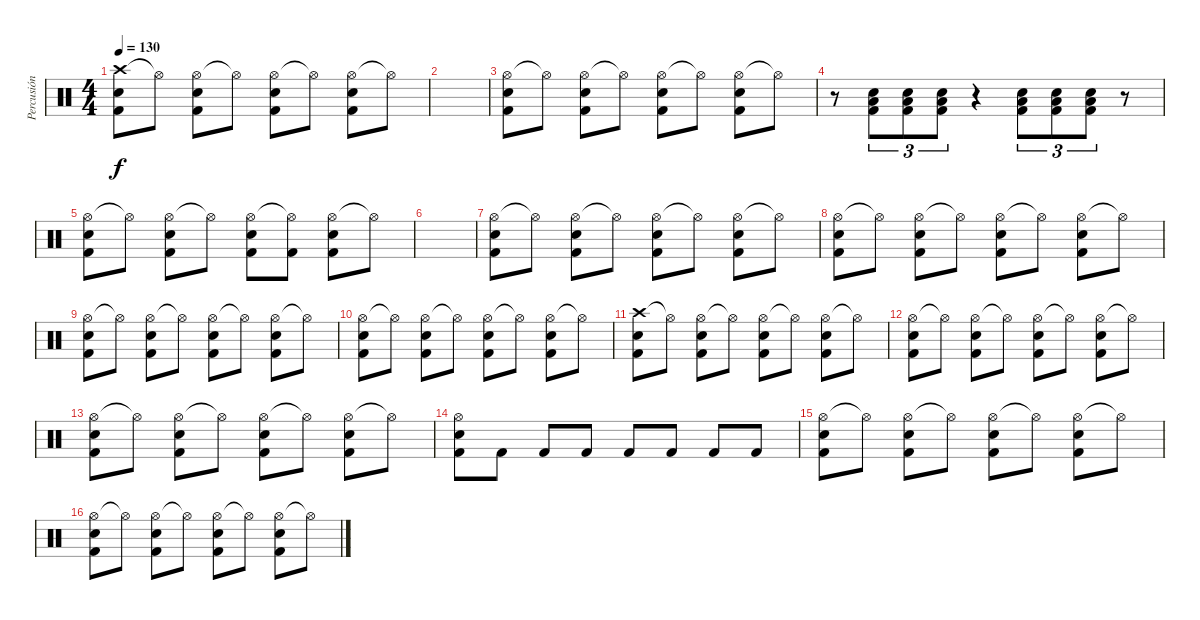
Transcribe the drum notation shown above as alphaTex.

\track ("Percusión" "Percusión") {instrument percussion}
\staff {score}
\articulation defaults
\ts (4 4)
\tempo 130
\clef neutral
\ks c
("Crash high (hit)" "Snare (hit) 2" "Kick (hit) 2").8{dy f} "Hi-Hat (open)"{t}.8 ("Hi-Hat (open)" "Snare (hit) 2" "Kick (hit) 2").8 "Hi-Hat (open)"{t}.8 ("Hi-Hat (open)" "Snare (hit) 2" "Kick (hit) 2").8 "Hi-Hat (open)"{t}.8 ("Hi-Hat (open)" "Snare (hit) 2" "Kick (hit) 2").8 "Hi-Hat (open)"{t}.8 |
|
("Hi-Hat (open)" "Snare (hit) 2" "Kick (hit) 2").8 "Hi-Hat (open)"{t}.8 ("Hi-Hat (open)" "Snare (hit) 2" "Kick (hit) 2").8 "Hi-Hat (open)"{t}.8 ("Hi-Hat (open)" "Snare (hit) 2" "Kick (hit) 2").8 "Hi-Hat (open)"{t}.8 ("Hi-Hat (open)" "Snare (hit) 2" "Kick (hit) 2").8 "Hi-Hat (open)"{t}.8 |
r.8 ("Snare (hit) 2" "Low Floor Tom (hit)" "Kick (hit) 2").8{tu (3 2)} ("Snare (hit) 2" "Low Floor Tom (hit)" "Kick (hit) 2").8{tu (3 2)} ("Snare (hit) 2" "Low Floor Tom (hit)" "Kick (hit) 2").8{tu (3 2)} r.4 ("Snare (hit) 2" "Low Floor Tom (hit)" "Kick (hit) 2").8{tu (3 2)} ("Snare (hit) 2" "Low Floor Tom (hit)" "Kick (hit) 2").8{tu (3 2)} ("Snare (hit) 2" "Low Floor Tom (hit)" "Kick (hit) 2").8{tu (3 2)} r.8 |
("Hi-Hat (open)" "Snare (hit) 2" "Kick (hit) 2").8 "Hi-Hat (open)"{t}.8 ("Hi-Hat (open)" "Snare (hit) 2" "Kick (hit) 2").8 "Hi-Hat (open)"{t}.8 ("Hi-Hat (open)" "Snare (hit) 2" "Kick (hit) 2").8 ("Hi-Hat (open)"{t} "Kick (hit) 2").8 ("Hi-Hat (open)" "Snare (hit) 2" "Kick (hit) 2").8 "Hi-Hat (open)"{t}.8 |
|
("Hi-Hat (open)" "Snare (hit) 2" "Kick (hit) 2").8 "Hi-Hat (open)"{t}.8 ("Hi-Hat (open)" "Snare (hit) 2" "Kick (hit) 2").8 "Hi-Hat (open)"{t}.8 ("Hi-Hat (open)" "Snare (hit) 2" "Kick (hit) 2").8 "Hi-Hat (open)"{t}.8 ("Hi-Hat (open)" "Snare (hit) 2" "Kick (hit) 2").8 "Hi-Hat (open)"{t}.8 |
("Hi-Hat (open)" "Snare (hit) 2" "Kick (hit) 2").8 "Hi-Hat (open)"{t}.8 ("Hi-Hat (open)" "Snare (hit) 2" "Kick (hit) 2").8 "Hi-Hat (open)"{t}.8 ("Hi-Hat (open)" "Snare (hit) 2" "Kick (hit) 2").8 "Hi-Hat (open)"{t}.8 ("Hi-Hat (open)" "Snare (hit) 2" "Kick (hit) 2").8 "Hi-Hat (open)"{t}.8 |
("Hi-Hat (open)" "Snare (hit) 2" "Kick (hit) 2").8 "Hi-Hat (open)"{t}.8 ("Hi-Hat (open)" "Snare (hit) 2" "Kick (hit) 2").8 "Hi-Hat (open)"{t}.8 ("Hi-Hat (open)" "Snare (hit) 2" "Kick (hit) 2").8 "Hi-Hat (open)"{t}.8 ("Hi-Hat (open)" "Snare (hit) 2" "Kick (hit) 2").8 "Hi-Hat (open)"{t}.8 |
("Hi-Hat (open)" "Snare (hit) 2" "Kick (hit) 2").8 "Hi-Hat (open)"{t}.8 ("Hi-Hat (open)" "Snare (hit) 2" "Kick (hit) 2").8 "Hi-Hat (open)"{t}.8 ("Hi-Hat (open)" "Snare (hit) 2" "Kick (hit) 2").8 "Hi-Hat (open)"{t}.8 ("Hi-Hat (open)" "Snare (hit) 2" "Kick (hit) 2").8 "Hi-Hat (open)"{t}.8 |
("Crash high (hit)" "Snare (hit) 2" "Kick (hit) 2").8 "Hi-Hat (open)"{t}.8 ("Hi-Hat (open)" "Snare (hit) 2" "Kick (hit) 2").8 "Hi-Hat (open)"{t}.8 ("Hi-Hat (open)" "Snare (hit) 2" "Kick (hit) 2").8 "Hi-Hat (open)"{t}.8 ("Hi-Hat (open)" "Snare (hit) 2" "Kick (hit) 2").8 "Hi-Hat (open)"{t}.8 |
("Hi-Hat (open)" "Snare (hit) 2" "Kick (hit) 2").8 "Hi-Hat (open)"{t}.8 ("Hi-Hat (open)" "Snare (hit) 2" "Kick (hit) 2").8 "Hi-Hat (open)"{t}.8 ("Hi-Hat (open)" "Snare (hit) 2" "Kick (hit) 2").8 "Hi-Hat (open)"{t}.8 ("Hi-Hat (open)" "Snare (hit) 2" "Kick (hit) 2").8 "Hi-Hat (open)"{t}.8 |
("Hi-Hat (open)" "Snare (hit) 2" "Kick (hit) 2").8 "Hi-Hat (open)"{t}.8 ("Hi-Hat (open)" "Snare (hit) 2" "Kick (hit) 2").8 "Hi-Hat (open)"{t}.8 ("Hi-Hat (open)" "Snare (hit) 2" "Kick (hit) 2").8 "Hi-Hat (open)"{t}.8 ("Hi-Hat (open)" "Snare (hit) 2" "Kick (hit) 2").8 "Hi-Hat (open)"{t}.8 |
("Hi-Hat (open)" "Snare (hit) 2" "Kick (hit) 2").8 "Kick (hit) 2".8 "Kick (hit) 2".8 "Kick (hit) 2".8 "Kick (hit) 2".8 "Kick (hit) 2".8 "Kick (hit) 2".8 "Kick (hit) 2".8 |
("Hi-Hat (open)" "Snare (hit) 2" "Kick (hit) 2").8 "Hi-Hat (open)"{t}.8 ("Hi-Hat (open)" "Snare (hit) 2" "Kick (hit) 2").8 "Hi-Hat (open)"{t}.8 ("Hi-Hat (open)" "Snare (hit) 2" "Kick (hit) 2").8 "Hi-Hat (open)"{t}.8 ("Hi-Hat (open)" "Snare (hit) 2" "Kick (hit) 2").8 "Hi-Hat (open)"{t}.8 |
("Hi-Hat (open)" "Snare (hit) 2" "Kick (hit) 2").8 "Hi-Hat (open)"{t}.8 ("Hi-Hat (open)" "Snare (hit) 2" "Kick (hit) 2").8 "Hi-Hat (open)"{t}.8 ("Hi-Hat (open)" "Snare (hit) 2" "Kick (hit) 2").8 "Hi-Hat (open)"{t}.8 ("Hi-Hat (open)" "Snare (hit) 2" "Kick (hit) 2").8 "Hi-Hat (open)"{t}.8
